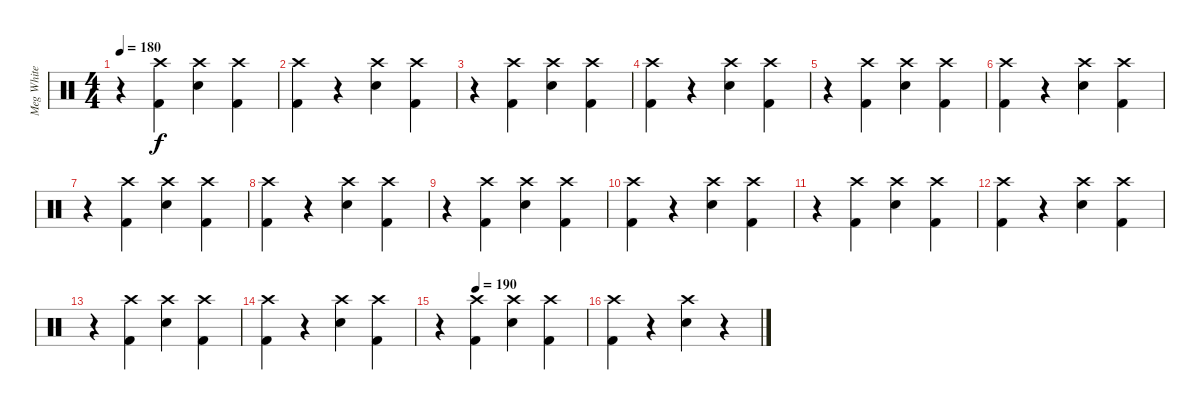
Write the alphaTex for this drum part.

\track ("Meg White" "Meg White") {instrument percussion}
\staff {score}
\articulation defaults
\ts (4 4)
\tempo 180
\clef neutral
\ks c
r.4{dy f} ("Crash high (hit)" "Kick (hit) 2").4 ("Crash high (hit)" "Snare (hit) 2").4 ("Crash high (hit)" "Kick (hit) 2").4 |
("Crash high (hit)" "Kick (hit) 2").4 r.4 ("Crash high (hit)" "Snare (hit) 2").4 ("Crash high (hit)" "Kick (hit) 2").4 |
r.4 ("Crash high (hit)" "Kick (hit) 2").4 ("Crash high (hit)" "Snare (hit) 2").4 ("Crash high (hit)" "Kick (hit) 2").4 |
("Crash high (hit)" "Kick (hit) 2").4 r.4 ("Crash high (hit)" "Snare (hit) 2").4 ("Crash high (hit)" "Kick (hit) 2").4 |
r.4 ("Crash high (hit)" "Kick (hit) 2").4 ("Crash high (hit)" "Snare (hit) 2").4 ("Crash high (hit)" "Kick (hit) 2").4 |
("Crash high (hit)" "Kick (hit) 2").4 r.4 ("Crash high (hit)" "Snare (hit) 2").4 ("Crash high (hit)" "Kick (hit) 2").4 |
r.4 ("Crash high (hit)" "Kick (hit) 2").4 ("Crash high (hit)" "Snare (hit) 2").4 ("Crash high (hit)" "Kick (hit) 2").4 |
("Crash high (hit)" "Kick (hit) 2").4 r.4 ("Crash high (hit)" "Snare (hit) 2").4 ("Crash high (hit)" "Kick (hit) 2").4 |
r.4 ("Crash high (hit)" "Kick (hit) 2").4 ("Crash high (hit)" "Snare (hit) 2").4 ("Crash high (hit)" "Kick (hit) 2").4 |
("Crash high (hit)" "Kick (hit) 2").4 r.4 ("Crash high (hit)" "Snare (hit) 2").4 ("Crash high (hit)" "Kick (hit) 2").4 |
r.4 ("Crash high (hit)" "Kick (hit) 2").4 ("Crash high (hit)" "Snare (hit) 2").4 ("Crash high (hit)" "Kick (hit) 2").4 |
("Crash high (hit)" "Kick (hit) 2").4 r.4 ("Crash high (hit)" "Snare (hit) 2").4 ("Crash high (hit)" "Kick (hit) 2").4 |
r.4 ("Crash high (hit)" "Kick (hit) 2").4 ("Crash high (hit)" "Snare (hit) 2").4 ("Crash high (hit)" "Kick (hit) 2").4 |
("Crash high (hit)" "Kick (hit) 2").4 r.4 ("Crash high (hit)" "Snare (hit) 2").4 ("Crash high (hit)" "Kick (hit) 2").4 |
\tempo (190 0.25)
r.4 ("Crash high (hit)" "Kick (hit) 2").4 ("Crash high (hit)" "Snare (hit) 2").4 ("Crash high (hit)" "Kick (hit) 2").4 |
("Crash high (hit)" "Kick (hit) 2").4 r.4 ("Crash high (hit)" "Snare (hit) 2").4 r.4
